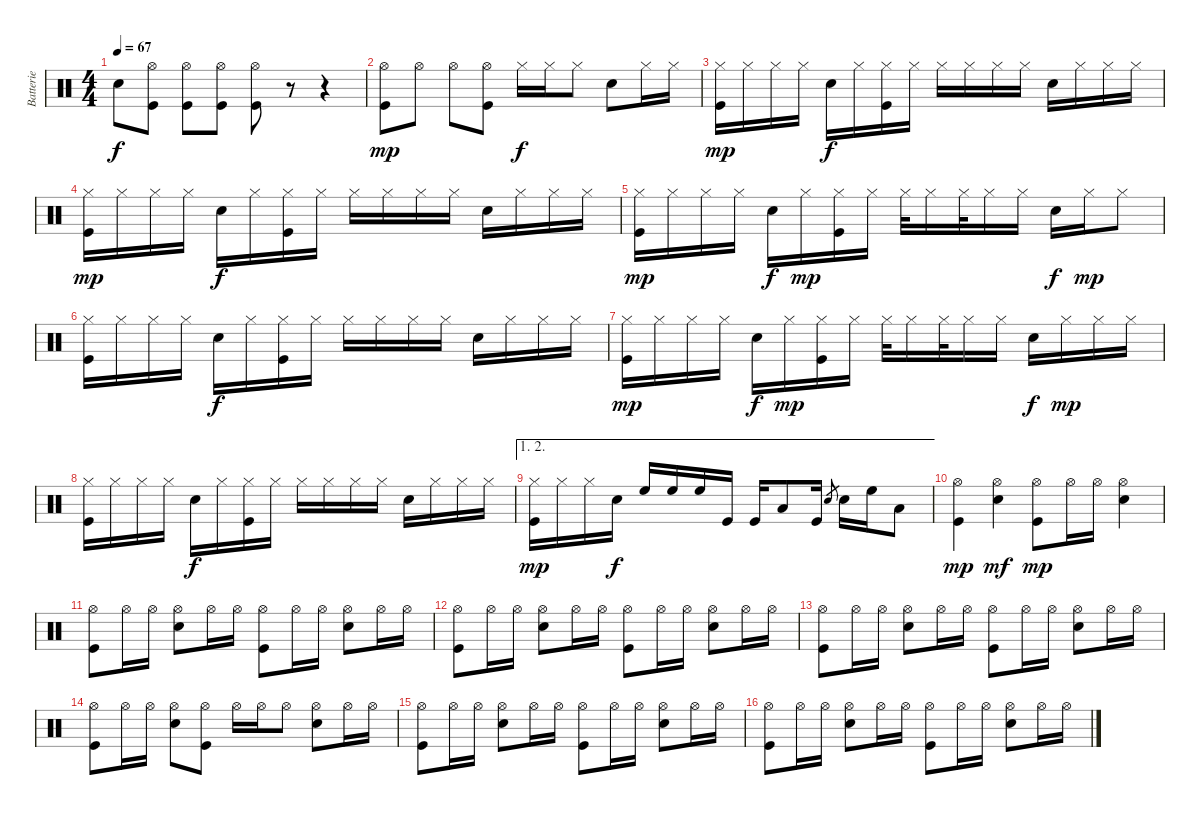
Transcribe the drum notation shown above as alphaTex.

\track ("Batterie" "Batterie") {instrument percussion}
\staff {score}
\articulation defaults
\ts (4 4)
\tempo 67
\clef neutral
\ks c "Snare (hit) 2".8{dy f}
("Hi-Hat (open)" "Kick (hit)").8 ("Hi-Hat (open)" "Kick (hit)").8 ("Hi-Hat (open)" "Kick (hit)").8 ("Hi-Hat (open)" "Kick (hit)").8 r.8 r.4 |
("Hi-Hat (open)" "Kick (hit)").8{dy mp} "Hi-Hat (open)".8 "Hi-Hat (open)".8 ("Hi-Hat (open)" "Kick (hit)").8 "Hi-Hat (closed)".16{dy f} "Hi-Hat (closed)".16 "Hi-Hat (closed)".8 "Snare (hit) 2".8 "Hi-Hat (closed)".16 "Hi-Hat (closed)".16 |
("Hi-Hat (closed)" "Kick (hit)").16{dy mp} "Hi-Hat (closed)".16 "Hi-Hat (closed)".16 "Hi-Hat (closed)".16 "Snare (hit) 2".16{dy f} "Hi-Hat (closed)".16 ("Hi-Hat (closed)" "Kick (hit)").16 "Hi-Hat (closed)".16 "Hi-Hat (closed)".16 "Hi-Hat (closed)".16 "Hi-Hat (closed)".16 "Hi-Hat (closed)".16 "Snare (hit) 2".16 "Hi-Hat (closed)".16 "Hi-Hat (closed)".16 "Hi-Hat (closed)".16 |
("Hi-Hat (closed)" "Kick (hit)").16{dy mp} "Hi-Hat (closed)".16 "Hi-Hat (closed)".16 "Hi-Hat (closed)".16 "Snare (hit) 2".16{dy f} "Hi-Hat (closed)".16 ("Hi-Hat (closed)" "Kick (hit)").16 "Hi-Hat (closed)".16 "Hi-Hat (closed)".16 "Hi-Hat (closed)".16 "Hi-Hat (closed)".16 "Hi-Hat (closed)".16 "Snare (hit) 2".16 "Hi-Hat (closed)".16 "Hi-Hat (closed)".16 "Hi-Hat (closed)".16 |
("Hi-Hat (closed)" "Kick (hit)").16{dy mp} "Hi-Hat (closed)".16 "Hi-Hat (closed)".16 "Hi-Hat (closed)".16 "Snare (hit) 2".16{dy f} "Hi-Hat (closed)".16{dy mp} ("Hi-Hat (closed)" "Kick (hit)").16 "Hi-Hat (closed)".16 "Hi-Hat (closed)".32 "Hi-Hat (closed)".16 "Hi-Hat (closed)".32 "Hi-Hat (closed)".16 "Hi-Hat (closed)".16 "Snare (hit) 2".16{dy f} "Hi-Hat (closed)".16{dy mp} "Hi-Hat (closed)".8 |
("Hi-Hat (closed)" "Kick (hit)").16 "Hi-Hat (closed)".16 "Hi-Hat (closed)".16 "Hi-Hat (closed)".16 "Snare (hit) 2".16{dy f} "Hi-Hat (closed)".16 ("Hi-Hat (closed)" "Kick (hit)").16 "Hi-Hat (closed)".16 "Hi-Hat (closed)".16 "Hi-Hat (closed)".16 "Hi-Hat (closed)".16 "Hi-Hat (closed)".16 "Snare (hit) 2".16 "Hi-Hat (closed)".16 "Hi-Hat (closed)".16 "Hi-Hat (closed)".16 |
("Hi-Hat (closed)" "Kick (hit)").16{dy mp} "Hi-Hat (closed)".16 "Hi-Hat (closed)".16 "Hi-Hat (closed)".16 "Snare (hit) 2".16{dy f} "Hi-Hat (closed)".16{dy mp} ("Hi-Hat (closed)" "Kick (hit)").16 "Hi-Hat (closed)".16 "Hi-Hat (closed)".32 "Hi-Hat (closed)".16 "Hi-Hat (closed)".32 "Hi-Hat (closed)".16 "Hi-Hat (closed)".16 "Snare (hit) 2".16{dy f} "Hi-Hat (closed)".16{dy mp} "Hi-Hat (closed)".16 "Hi-Hat (closed)".16 |
("Hi-Hat (closed)" "Kick (hit)").16 "Hi-Hat (closed)".16 "Hi-Hat (closed)".16 "Hi-Hat (closed)".16 "Snare (hit) 2".16{dy f} "Hi-Hat (closed)".16 ("Hi-Hat (closed)" "Kick (hit)").16 "Hi-Hat (closed)".16 "Hi-Hat (closed)".16 "Hi-Hat (closed)".16 "Hi-Hat (closed)".16 "Hi-Hat (closed)".16 "Snare (hit) 2".16 "Hi-Hat (closed)".16 "Hi-Hat (closed)".16 "Hi-Hat (closed)".16 |
\ae (1 2)
("Hi-Hat (closed)" "Kick (hit)").16{dy mp} "Hi-Hat (closed)".16 "Hi-Hat (closed)".16 "Snare (hit) 2".16{dy f} "High Floor Tom (hit)".16 "High Floor Tom (hit)".16 "High Floor Tom (hit)".16 "Kick (hit)".16 "Kick (hit)".16 "Low Tom (hit)".8 "Kick (hit)".16 "Snare (hit) 2".8{gr} "Snare (hit) 2".16 "High Floor Tom (hit)".16 "Low Tom (hit)".8 |
("Hi-Hat (open)" "Kick (hit)").4{dy mp} ("Hi-Hat (open)" "Snare (hit) 2").4{dy mf} ("Hi-Hat (open)" "Kick (hit)").8{dy mp} "Hi-Hat (open)".16 "Hi-Hat (open)".16 ("Hi-Hat (open)" "Snare (hit) 2").4 |
("Hi-Hat (open)" "Kick (hit)").8 "Hi-Hat (open)".16 "Hi-Hat (open)".16 ("Hi-Hat (open)" "Snare (hit) 2").8 "Hi-Hat (open)".16 "Hi-Hat (open)".16 ("Hi-Hat (open)" "Kick (hit)").8 "Hi-Hat (open)".16 "Hi-Hat (open)".16 ("Hi-Hat (open)" "Snare (hit) 2").8 "Hi-Hat (open)".16 "Hi-Hat (open)".16 |
("Hi-Hat (open)" "Kick (hit)").8 "Hi-Hat (open)".16 "Hi-Hat (open)".16 ("Hi-Hat (open)" "Snare (hit) 2").8 "Hi-Hat (open)".16 "Hi-Hat (open)".16 ("Hi-Hat (open)" "Kick (hit)").8 "Hi-Hat (open)".16 "Hi-Hat (open)".16 ("Hi-Hat (open)" "Snare (hit) 2").8 "Hi-Hat (open)".16 "Hi-Hat (open)".16 |
("Hi-Hat (open)" "Kick (hit)").8 "Hi-Hat (open)".16 "Hi-Hat (open)".16 ("Hi-Hat (open)" "Snare (hit) 2").8 "Hi-Hat (open)".16 "Hi-Hat (open)".16 ("Hi-Hat (open)" "Kick (hit)").8 "Hi-Hat (open)".16 "Hi-Hat (open)".16 ("Hi-Hat (open)" "Snare (hit) 2").8 "Hi-Hat (open)".16 "Hi-Hat (open)".16 |
("Hi-Hat (open)" "Kick (hit)").8 "Hi-Hat (open)".16 "Hi-Hat (open)".16 ("Hi-Hat (open)" "Snare (hit) 2").8 ("Hi-Hat (open)" "Kick (hit)").8 "Hi-Hat (open)".16 "Hi-Hat (open)".16 "Hi-Hat (open)".8 ("Hi-Hat (open)" "Snare (hit) 2").8 "Hi-Hat (open)".16 "Hi-Hat (open)".16 |
("Hi-Hat (open)" "Kick (hit)").8 "Hi-Hat (open)".16 "Hi-Hat (open)".16 ("Hi-Hat (open)" "Snare (hit) 2").8 "Hi-Hat (open)".16 "Hi-Hat (open)".16 ("Hi-Hat (open)" "Kick (hit)").8 "Hi-Hat (open)".16 "Hi-Hat (open)".16 ("Hi-Hat (open)" "Snare (hit) 2").8 "Hi-Hat (open)".16 "Hi-Hat (open)".16 |
("Hi-Hat (open)" "Kick (hit)").8 "Hi-Hat (open)".16 "Hi-Hat (open)".16 ("Hi-Hat (open)" "Snare (hit) 2").8 "Hi-Hat (open)".16 "Hi-Hat (open)".16 ("Hi-Hat (open)" "Kick (hit)").8 "Hi-Hat (open)".16 "Hi-Hat (open)".16 ("Hi-Hat (open)" "Snare (hit) 2").8 "Hi-Hat (open)".16 "Hi-Hat (open)".16
